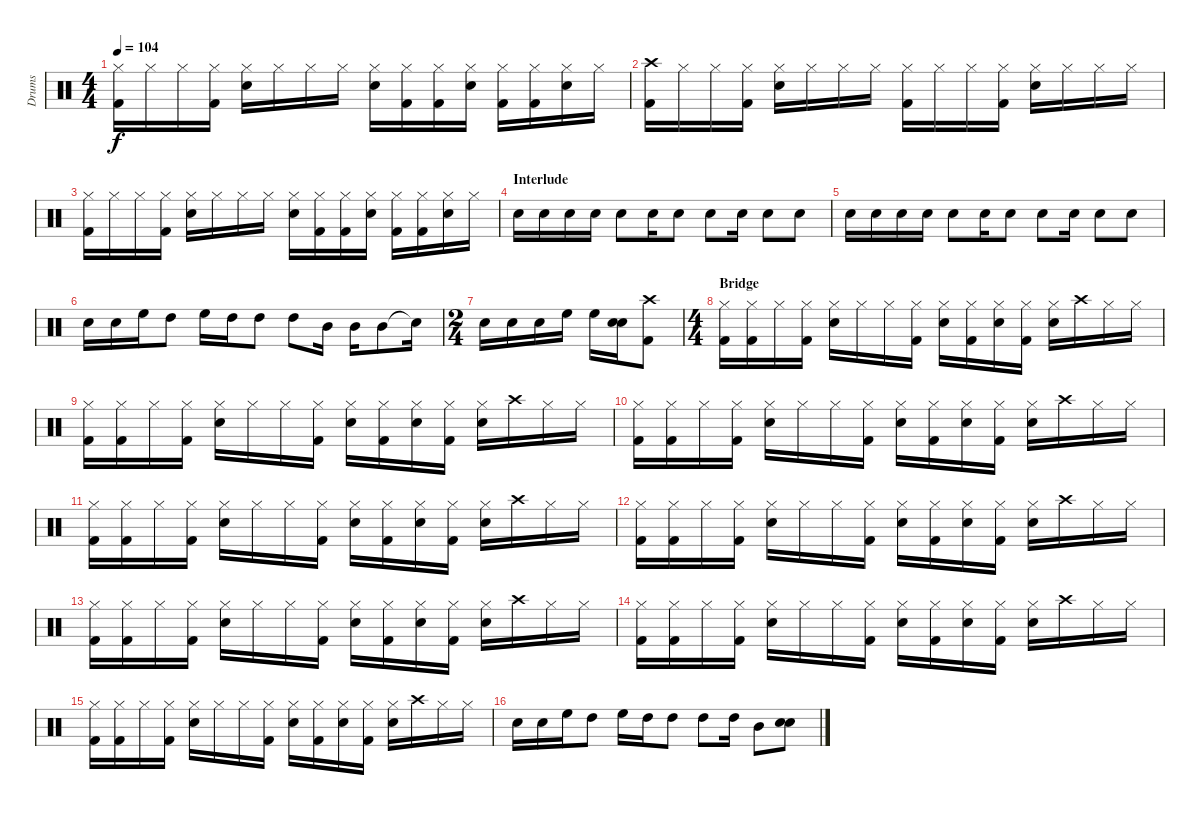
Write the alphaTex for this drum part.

\track ("Drums" "Drums") {instrument percussion}
\staff {score}
\articulation defaults
\ts (4 4)
\tempo 104
\clef neutral
\ks c
("Hi-Hat (closed)" "Kick (hit) 2").16{dy f} "Hi-Hat (closed)".16 "Hi-Hat (closed)".16 ("Hi-Hat (closed)" "Kick (hit) 2").16 ("Hi-Hat (closed)" "Snare (hit) 2").16 "Hi-Hat (closed)".16 "Hi-Hat (closed)".16 "Hi-Hat (closed)".16 ("Hi-Hat (closed)" "Snare (hit) 2").16 ("Hi-Hat (closed)" "Kick (hit) 2").16 ("Hi-Hat (closed)" "Kick (hit) 2").16 ("Hi-Hat (closed)" "Snare (hit) 2").16 ("Hi-Hat (closed)" "Kick (hit) 2").16 ("Hi-Hat (closed)" "Kick (hit) 2").16 ("Hi-Hat (closed)" "Snare (hit) 2").16 "Hi-Hat (closed)".16 |
("Crash high (hit)" "Kick (hit) 2").16 "Hi-Hat (closed)".16 "Hi-Hat (closed)".16 ("Hi-Hat (closed)" "Kick (hit) 2").16 ("Hi-Hat (closed)" "Snare (hit) 2").16 "Hi-Hat (closed)".16 "Hi-Hat (closed)".16 "Hi-Hat (closed)".16 ("Hi-Hat (closed)" "Kick (hit) 2").16 "Hi-Hat (closed)".16 "Hi-Hat (closed)".16 ("Hi-Hat (closed)" "Kick (hit) 2").16 ("Hi-Hat (closed)" "Snare (hit) 2").16 "Hi-Hat (closed)".16 "Hi-Hat (closed)".16 "Hi-Hat (closed)".16 |
("Hi-Hat (closed)" "Kick (hit) 2").16 "Hi-Hat (closed)".16 "Hi-Hat (closed)".16 ("Hi-Hat (closed)" "Kick (hit) 2").16 ("Hi-Hat (closed)" "Snare (hit) 2").16 "Hi-Hat (closed)".16 "Hi-Hat (closed)".16 "Hi-Hat (closed)".16 ("Hi-Hat (closed)" "Snare (hit) 2").16 ("Hi-Hat (closed)" "Kick (hit) 2").16 ("Hi-Hat (closed)" "Kick (hit) 2").16 ("Hi-Hat (closed)" "Snare (hit) 2").16 ("Hi-Hat (closed)" "Kick (hit) 2").16 ("Hi-Hat (closed)" "Kick (hit) 2").16 ("Hi-Hat (closed)" "Snare (hit) 2").16 "Hi-Hat (closed)".16 |
\section ("" "Interlude")
"Snare (hit) 2".16 "Snare (hit) 2".16 "Snare (hit) 2".16 "Snare (hit) 2".16 "Snare (hit) 2".8 "Snare (hit) 2".16 "Snare (hit) 2".8 "Snare (hit) 2".8 "Snare (hit) 2".16 "Snare (hit) 2".8 "Snare (hit) 2".8 |
"Snare (hit) 2".16 "Snare (hit) 2".16 "Snare (hit) 2".16 "Snare (hit) 2".16 "Snare (hit) 2".8 "Snare (hit) 2".16 "Snare (hit) 2".8 "Snare (hit) 2".8 "Snare (hit) 2".16 "Snare (hit) 2".8 "Snare (hit) 2".8 |
"Snare (hit) 2".16 "Snare (hit) 2".16 "High Floor Tom (hit)".16 "High Tom (hit)".8 "High Floor Tom (hit)".16 "High Tom (hit)".16 "High Tom (hit)".8 "High Tom (hit)".8 "Mid Tom (hit)".16 "Mid Tom (hit)".16 "Mid Tom (hit)".8 "Snare (hit)"{t}.16 |
\ts (2 4)
"Snare (hit) 2".16 "Snare (hit) 2".16 "Snare (hit) 2".16 "High Floor Tom (hit)".16 "High Floor Tom (hit)".16 ("Snare (hit) 2" "Snare (hit) 2").16 ("Crash high (hit)" "Kick (hit) 2").8 |
\ts (4 4)
\section ("" "Bridge")
("Hi-Hat (closed)" "Kick (hit) 2").16 ("Hi-Hat (closed)" "Kick (hit) 2").16 "Hi-Hat (closed)".16 ("Hi-Hat (closed)" "Kick (hit) 2").16 ("Hi-Hat (closed)" "Snare (hit) 2").16 "Hi-Hat (closed)".16 "Hi-Hat (closed)".16 ("Hi-Hat (closed)" "Kick (hit) 2").16 ("Hi-Hat (closed)" "Snare (hit) 2").16 ("Hi-Hat (closed)" "Kick (hit) 2").16 ("Hi-Hat (closed)" "Snare (hit) 2").16 ("Hi-Hat (closed)" "Kick (hit) 2").16 ("Hi-Hat (closed)" "Snare (hit) 2").16 "Crash high (hit)".16 "Hi-Hat (closed)".16 "Hi-Hat (closed)".16 |
("Hi-Hat (closed)" "Kick (hit) 2").16 ("Hi-Hat (closed)" "Kick (hit) 2").16 "Hi-Hat (closed)".16 ("Hi-Hat (closed)" "Kick (hit) 2").16 ("Hi-Hat (closed)" "Snare (hit) 2").16 "Hi-Hat (closed)".16 "Hi-Hat (closed)".16 ("Hi-Hat (closed)" "Kick (hit) 2").16 ("Hi-Hat (closed)" "Snare (hit) 2").16 ("Hi-Hat (closed)" "Kick (hit) 2").16 ("Hi-Hat (closed)" "Snare (hit) 2").16 ("Hi-Hat (closed)" "Kick (hit) 2").16 ("Hi-Hat (closed)" "Snare (hit) 2").16 "Crash high (hit)".16 "Hi-Hat (closed)".16 "Hi-Hat (closed)".16 |
("Hi-Hat (closed)" "Kick (hit) 2").16 ("Hi-Hat (closed)" "Kick (hit) 2").16 "Hi-Hat (closed)".16 ("Hi-Hat (closed)" "Kick (hit) 2").16 ("Hi-Hat (closed)" "Snare (hit) 2").16 "Hi-Hat (closed)".16 "Hi-Hat (closed)".16 ("Hi-Hat (closed)" "Kick (hit) 2").16 ("Hi-Hat (closed)" "Snare (hit) 2").16 ("Hi-Hat (closed)" "Kick (hit) 2").16 ("Hi-Hat (closed)" "Snare (hit) 2").16 ("Hi-Hat (closed)" "Kick (hit) 2").16 ("Hi-Hat (closed)" "Snare (hit) 2").16 "Crash high (hit)".16 "Hi-Hat (closed)".16 "Hi-Hat (closed)".16 |
("Hi-Hat (closed)" "Kick (hit) 2").16 ("Hi-Hat (closed)" "Kick (hit) 2").16 "Hi-Hat (closed)".16 ("Hi-Hat (closed)" "Kick (hit) 2").16 ("Hi-Hat (closed)" "Snare (hit) 2").16 "Hi-Hat (closed)".16 "Hi-Hat (closed)".16 ("Hi-Hat (closed)" "Kick (hit) 2").16 ("Hi-Hat (closed)" "Snare (hit) 2").16 ("Hi-Hat (closed)" "Kick (hit) 2").16 ("Hi-Hat (closed)" "Snare (hit) 2").16 ("Hi-Hat (closed)" "Kick (hit) 2").16 ("Hi-Hat (closed)" "Snare (hit) 2").16 "Crash high (hit)".16 "Hi-Hat (closed)".16 "Hi-Hat (closed)".16 |
("Hi-Hat (closed)" "Kick (hit) 2").16 ("Hi-Hat (closed)" "Kick (hit) 2").16 "Hi-Hat (closed)".16 ("Hi-Hat (closed)" "Kick (hit) 2").16 ("Hi-Hat (closed)" "Snare (hit) 2").16 "Hi-Hat (closed)".16 "Hi-Hat (closed)".16 ("Hi-Hat (closed)" "Kick (hit) 2").16 ("Hi-Hat (closed)" "Snare (hit) 2").16 ("Hi-Hat (closed)" "Kick (hit) 2").16 ("Hi-Hat (closed)" "Snare (hit) 2").16 ("Hi-Hat (closed)" "Kick (hit) 2").16 ("Hi-Hat (closed)" "Snare (hit) 2").16 "Crash high (hit)".16 "Hi-Hat (closed)".16 "Hi-Hat (closed)".16 |
("Hi-Hat (closed)" "Kick (hit) 2").16 ("Hi-Hat (closed)" "Kick (hit) 2").16 "Hi-Hat (closed)".16 ("Hi-Hat (closed)" "Kick (hit) 2").16 ("Hi-Hat (closed)" "Snare (hit) 2").16 "Hi-Hat (closed)".16 "Hi-Hat (closed)".16 ("Hi-Hat (closed)" "Kick (hit) 2").16 ("Hi-Hat (closed)" "Snare (hit) 2").16 ("Hi-Hat (closed)" "Kick (hit) 2").16 ("Hi-Hat (closed)" "Snare (hit) 2").16 ("Hi-Hat (closed)" "Kick (hit) 2").16 ("Hi-Hat (closed)" "Snare (hit) 2").16 "Crash high (hit)".16 "Hi-Hat (closed)".16 "Hi-Hat (closed)".16 |
("Hi-Hat (closed)" "Kick (hit) 2").16 ("Hi-Hat (closed)" "Kick (hit) 2").16 "Hi-Hat (closed)".16 ("Hi-Hat (closed)" "Kick (hit) 2").16 ("Hi-Hat (closed)" "Snare (hit) 2").16 "Hi-Hat (closed)".16 "Hi-Hat (closed)".16 ("Hi-Hat (closed)" "Kick (hit) 2").16 ("Hi-Hat (closed)" "Snare (hit) 2").16 ("Hi-Hat (closed)" "Kick (hit) 2").16 ("Hi-Hat (closed)" "Snare (hit) 2").16 ("Hi-Hat (closed)" "Kick (hit) 2").16 ("Hi-Hat (closed)" "Snare (hit) 2").16 "Crash high (hit)".16 "Hi-Hat (closed)".16 "Hi-Hat (closed)".16 |
("Hi-Hat (closed)" "Kick (hit) 2").16 ("Hi-Hat (closed)" "Kick (hit) 2").16 "Hi-Hat (closed)".16 ("Hi-Hat (closed)" "Kick (hit) 2").16 ("Hi-Hat (closed)" "Snare (hit) 2").16 "Hi-Hat (closed)".16 "Hi-Hat (closed)".16 ("Hi-Hat (closed)" "Kick (hit) 2").16 ("Hi-Hat (closed)" "Snare (hit) 2").16 ("Hi-Hat (closed)" "Kick (hit) 2").16 ("Hi-Hat (closed)" "Snare (hit) 2").16 ("Hi-Hat (closed)" "Kick (hit) 2").16 ("Hi-Hat (closed)" "Snare (hit) 2").16 "Crash high (hit)".16 "Hi-Hat (closed)".16 "Hi-Hat (closed)".16 |
"Snare (hit) 2".16 "Snare (hit) 2".16 "High Floor Tom (hit)".16 "High Tom (hit)".8 "High Floor Tom (hit)".16 "High Tom (hit)".16 "High Tom (hit)".8 "High Tom (hit)".8 "High Tom (hit)".16 "Mid Tom (hit)".8 ("Snare (hit) 2" "Snare (hit) 2").8
